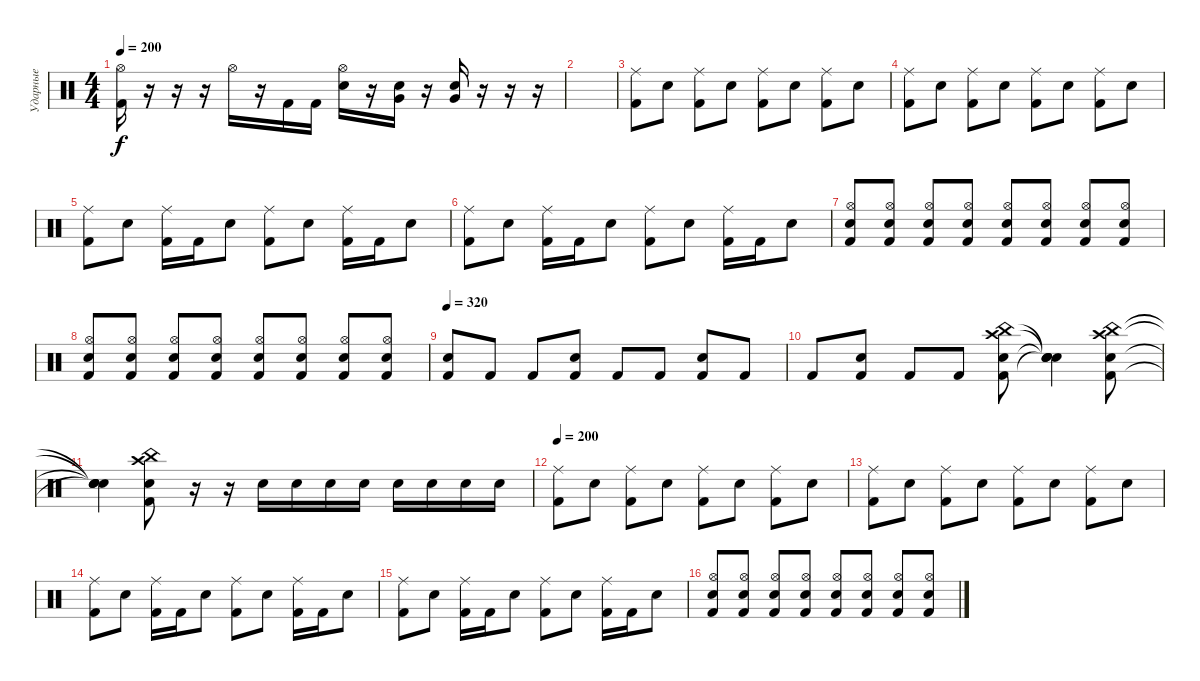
\track ("Ударные" "Ударные") {instrument percussion}
\staff {score}
\articulation defaults
\ts (4 4)
\tempo 200
\clef neutral
\ks c
("Kick (hit) 2" "Hi-Hat (open)").16{dy f} r.16 r.16 r.16 "Hi-Hat (open)".16 r.16 "Kick (hit) 2".16 "Kick (hit) 2".16 ("Electric Snare (hit)" "Hi-Hat (open)").16 r.16 ("Electric Snare (hit)" "Very Low Tom (hit)").16 r.16 ("Very Low Tom (hit)" "Electric Snare (hit)").16 r.16 r.16 r.16 |
|
("Kick (hit) 2" "Ride (middle)").8 "Electric Snare (hit)".8 ("Kick (hit) 2" "Ride (middle)").8 "Electric Snare (hit)".8 ("Kick (hit) 2" "Ride (middle)").8 "Electric Snare (hit)".8 ("Kick (hit) 2" "Ride (middle)").8 "Electric Snare (hit)".8 |
("Kick (hit) 2" "Ride (middle)").8 "Electric Snare (hit)".8 ("Kick (hit) 2" "Ride (middle)").8 "Electric Snare (hit)".8 ("Kick (hit) 2" "Ride (middle)").8 "Electric Snare (hit)".8 ("Kick (hit) 2" "Ride (middle)").8 "Electric Snare (hit)".8 |
("Kick (hit) 2" "Ride (middle)").8 "Electric Snare (hit)".8 ("Kick (hit) 2" "Ride (middle)").16 "Kick (hit) 2".16 "Electric Snare (hit)".8 ("Kick (hit) 2" "Ride (middle)").8 "Electric Snare (hit)".8 ("Kick (hit) 2" "Ride (middle)").16 "Kick (hit) 2".16 "Electric Snare (hit)".8 |
("Kick (hit) 2" "Ride (middle)").8 "Electric Snare (hit)".8 ("Kick (hit) 2" "Ride (middle)").16 "Kick (hit) 2".16 "Electric Snare (hit)".8 ("Kick (hit) 2" "Ride (middle)").8 "Electric Snare (hit)".8 ("Kick (hit) 2" "Ride (middle)").16 "Kick (hit) 2".16 "Electric Snare (hit)".8 |
("Electric Snare (hit)" "Kick (hit) 2" "Hi-Hat (open)").8 ("Hi-Hat (open)" "Kick (hit) 2" "Electric Snare (hit)").8 ("Electric Snare (hit)" "Kick (hit) 2" "Hi-Hat (open)").8 ("Hi-Hat (open)" "Kick (hit) 2" "Electric Snare (hit)").8 ("Electric Snare (hit)" "Kick (hit) 2" "Hi-Hat (open)").8 ("Hi-Hat (open)" "Kick (hit) 2" "Electric Snare (hit)").8 ("Electric Snare (hit)" "Kick (hit) 2" "Hi-Hat (open)").8 ("Hi-Hat (open)" "Kick (hit) 2" "Electric Snare (hit)").8 |
("Electric Snare (hit)" "Kick (hit) 2" "Hi-Hat (open)").8 ("Hi-Hat (open)" "Kick (hit) 2" "Electric Snare (hit)").8 ("Electric Snare (hit)" "Kick (hit) 2" "Hi-Hat (open)").8 ("Hi-Hat (open)" "Kick (hit) 2" "Electric Snare (hit)").8 ("Electric Snare (hit)" "Kick (hit) 2" "Hi-Hat (open)").8 ("Hi-Hat (open)" "Kick (hit) 2" "Electric Snare (hit)").8 ("Electric Snare (hit)" "Kick (hit) 2" "Hi-Hat (open)").8 ("Hi-Hat (open)" "Kick (hit) 2" "Electric Snare (hit)").8 |
\tempo 330
\tempo 320
("Kick (hit) 2" "Electric Snare (hit)").8 "Kick (hit) 2".8 "Kick (hit) 2".8 ("Kick (hit) 2" "Electric Snare (hit)").8 "Kick (hit) 2".8 "Kick (hit) 2".8 ("Kick (hit) 2" "Electric Snare (hit)").8 "Kick (hit) 2".8 |
"Kick (hit) 2".8 ("Kick (hit) 2" "Electric Snare (hit)").8 "Kick (hit) 2".8 "Kick (hit) 2".8 ("Kick (hit) 2" "Electric Snare (hit)" "Crash high (hit)" "China (hit)").8 ("Snare (hit)"{t} "Snare (hit)"{t} "Snare (hit)"{t} "Snare (hit)"{t}).4 ("Kick (hit) 2" "Electric Snare (hit)" "Crash high (hit)" "China (hit)").8 |
("Snare (hit)"{t} "Snare (hit)"{t} "Snare (hit)"{t} "Snare (hit)"{t}).4 ("China (hit)" "Crash high (hit)" "Kick (hit) 2" "Electric Snare (hit)").8 r.16 r.16 "Electric Snare (hit)".16 "Electric Snare (hit)".16 "Electric Snare (hit)".16 "Electric Snare (hit)".16 "Electric Snare (hit)".16 "Electric Snare (hit)".16 "Electric Snare (hit)".16 "Electric Snare (hit)".16 |
\tempo 200
("Kick (hit) 2" "Ride (middle)").8 "Electric Snare (hit)".8 ("Kick (hit) 2" "Ride (middle)").8 "Electric Snare (hit)".8 ("Kick (hit) 2" "Ride (middle)").8 "Electric Snare (hit)".8 ("Kick (hit) 2" "Ride (middle)").8 "Electric Snare (hit)".8 |
("Kick (hit) 2" "Ride (middle)").8 "Electric Snare (hit)".8 ("Kick (hit) 2" "Ride (middle)").8 "Electric Snare (hit)".8 ("Kick (hit) 2" "Ride (middle)").8 "Electric Snare (hit)".8 ("Kick (hit) 2" "Ride (middle)").8 "Electric Snare (hit)".8 |
("Kick (hit) 2" "Ride (middle)").8 "Electric Snare (hit)".8 ("Kick (hit) 2" "Ride (middle)").16 "Kick (hit) 2".16 "Electric Snare (hit)".8 ("Kick (hit) 2" "Ride (middle)").8 "Electric Snare (hit)".8 ("Kick (hit) 2" "Ride (middle)").16 "Kick (hit) 2".16 "Electric Snare (hit)".8 |
("Kick (hit) 2" "Ride (middle)").8 "Electric Snare (hit)".8 ("Kick (hit) 2" "Ride (middle)").16 "Kick (hit) 2".16 "Electric Snare (hit)".8 ("Kick (hit) 2" "Ride (middle)").8 "Electric Snare (hit)".8 ("Kick (hit) 2" "Ride (middle)").16 "Kick (hit) 2".16 "Electric Snare (hit)".8 |
("Electric Snare (hit)" "Kick (hit) 2" "Hi-Hat (open)").8 ("Hi-Hat (open)" "Kick (hit) 2" "Electric Snare (hit)").8 ("Electric Snare (hit)" "Kick (hit) 2" "Hi-Hat (open)").8 ("Hi-Hat (open)" "Kick (hit) 2" "Electric Snare (hit)").8 ("Electric Snare (hit)" "Kick (hit) 2" "Hi-Hat (open)").8 ("Hi-Hat (open)" "Kick (hit) 2" "Electric Snare (hit)").8 ("Electric Snare (hit)" "Kick (hit) 2" "Hi-Hat (open)").8 ("Hi-Hat (open)" "Kick (hit) 2" "Electric Snare (hit)").8
